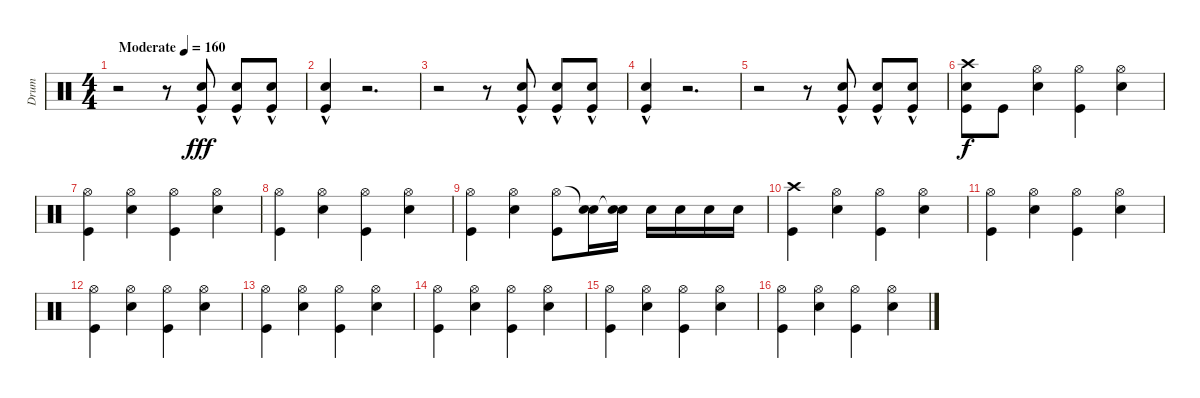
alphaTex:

\track ("Drum" "Drum") {instrument percussion}
\staff {score}
\articulation defaults
\ts (4 4)
\tempo (160 "Moderate")
\clef neutral
\ks c
r.2{dy fff} r.8 ("Snare (hit) 2"{hac} "Kick (hit)").8 ("Snare (hit) 2"{hac} "Kick (hit)").8 ("Snare (hit) 2"{hac} "Kick (hit)").8 |
("Snare (hit) 2"{hac} "Kick (hit)").4 r.2{d} |
r.2 r.8 ("Snare (hit) 2"{hac} "Kick (hit)").8 ("Snare (hit) 2"{hac} "Kick (hit)").8 ("Snare (hit) 2"{hac} "Kick (hit)").8 |
("Snare (hit) 2"{hac} "Kick (hit)").4 r.2{d} |
r.2 r.8 ("Snare (hit) 2"{hac} "Kick (hit)").8 ("Snare (hit) 2"{hac} "Kick (hit)").8 ("Snare (hit) 2"{hac} "Kick (hit)").8 |
("Crash high (hit)" "Snare (hit) 2" "Kick (hit)").8{dy f} "Kick (hit)".8 ("Hi-Hat (open)" "Snare (hit) 2").4 ("Hi-Hat (open)" "Kick (hit)").4 ("Hi-Hat (open)" "Snare (hit) 2").4 |
("Hi-Hat (open)" "Kick (hit)").4 ("Hi-Hat (open)" "Snare (hit) 2").4 ("Hi-Hat (open)" "Kick (hit)").4 ("Hi-Hat (open)" "Snare (hit) 2").4 |
("Hi-Hat (open)" "Kick (hit)").4 ("Hi-Hat (open)" "Snare (hit) 2").4 ("Hi-Hat (open)" "Kick (hit)").4 ("Hi-Hat (open)" "Snare (hit) 2").4 |
("Hi-Hat (open)" "Kick (hit)").4 ("Hi-Hat (open)" "Snare (hit) 2").4 ("Hi-Hat (open)" "Kick (hit)").8 ("Snare (hit)"{t} "Snare (hit) 2").16 ("Snare (hit)"{t} "Snare (hit) 2").16 "Snare (hit) 2".16 "Snare (hit) 2".16 "Snare (hit) 2".16 "Snare (hit) 2".16 |
("Crash high (hit)" "Kick (hit)").4 ("Hi-Hat (open)" "Snare (hit) 2").4 ("Hi-Hat (open)" "Kick (hit)").4 ("Hi-Hat (open)" "Snare (hit) 2").4 |
("Hi-Hat (open)" "Kick (hit)").4 ("Hi-Hat (open)" "Snare (hit) 2").4 ("Hi-Hat (open)" "Kick (hit)").4 ("Hi-Hat (open)" "Snare (hit) 2").4 |
("Hi-Hat (open)" "Kick (hit)").4 ("Hi-Hat (open)" "Snare (hit) 2").4 ("Hi-Hat (open)" "Kick (hit)").4 ("Hi-Hat (open)" "Snare (hit) 2").4 |
("Hi-Hat (open)" "Kick (hit)").4 ("Hi-Hat (open)" "Snare (hit) 2").4 ("Hi-Hat (open)" "Kick (hit)").4 ("Hi-Hat (open)" "Snare (hit) 2").4 |
("Hi-Hat (open)" "Kick (hit)").4 ("Hi-Hat (open)" "Snare (hit) 2").4 ("Hi-Hat (open)" "Kick (hit)").4 ("Hi-Hat (open)" "Snare (hit) 2").4 |
("Hi-Hat (open)" "Kick (hit)").4 ("Hi-Hat (open)" "Snare (hit) 2").4 ("Hi-Hat (open)" "Kick (hit)").4 ("Hi-Hat (open)" "Snare (hit) 2").4 |
("Hi-Hat (open)" "Kick (hit)").4 ("Hi-Hat (open)" "Snare (hit) 2").4 ("Hi-Hat (open)" "Kick (hit)").4 ("Hi-Hat (open)" "Snare (hit) 2").4
